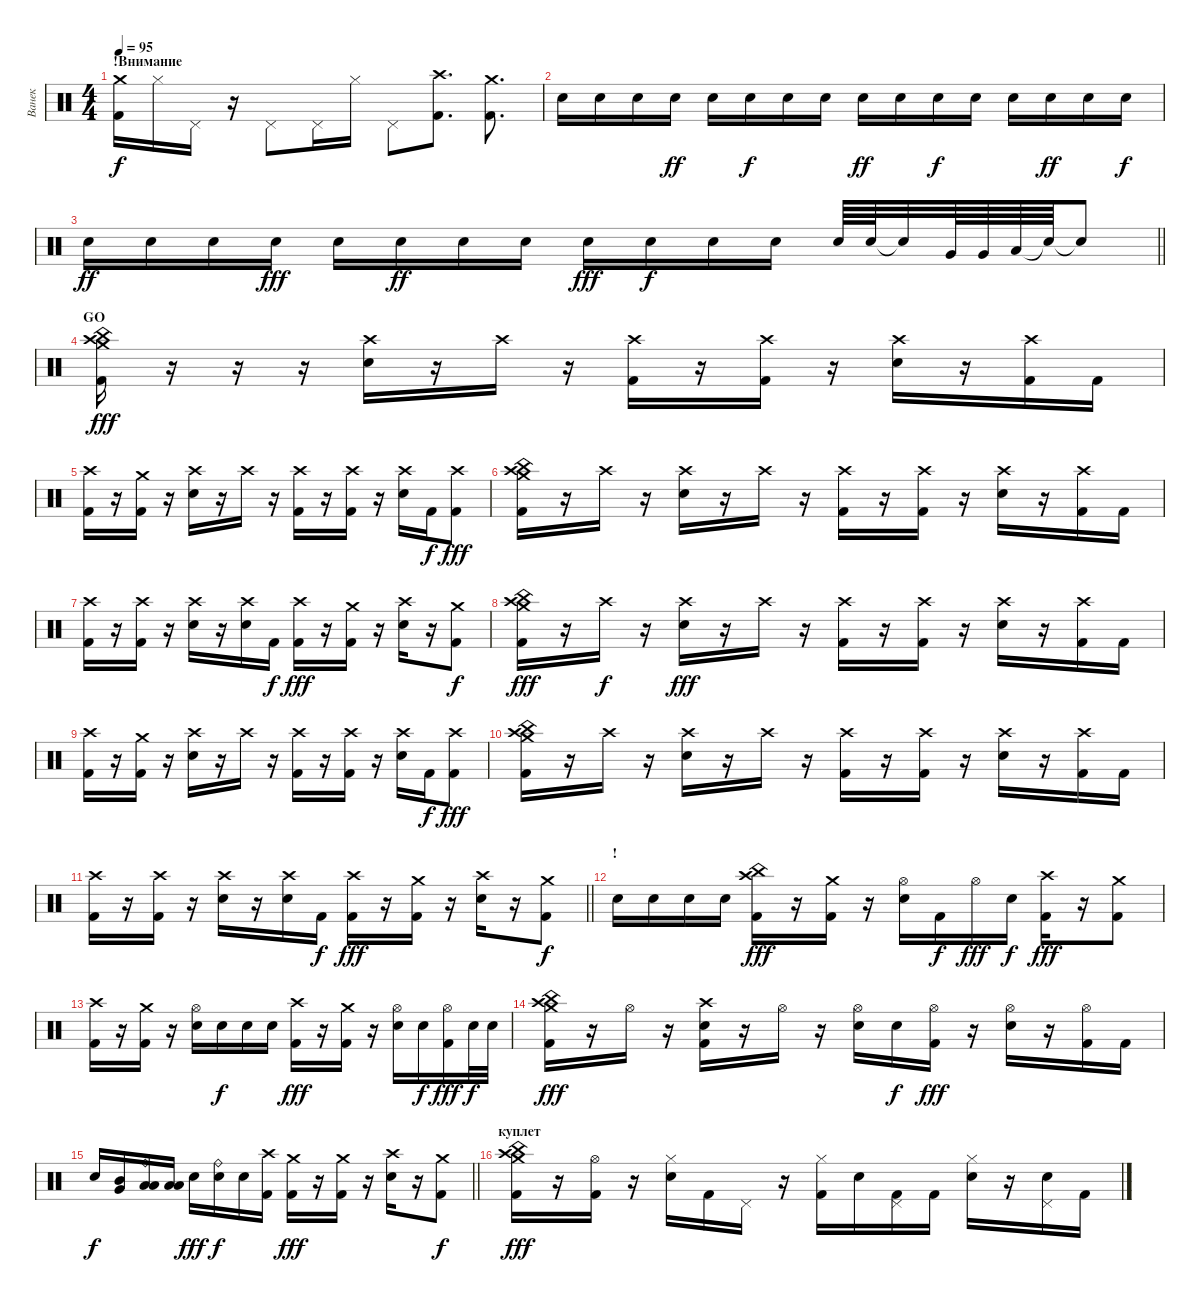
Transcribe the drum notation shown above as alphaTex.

\track ("Ванек" "Ванек") {instrument percussion}
\staff {score}
\articulation defaults
\ts (4 4)
\section ("" "!Внимание")
\tempo 95
\clef neutral
\ks c
("Crash medium (hit)" "Kick (hit) 2").16{dy f} "Hi-Hat (closed)".16 "Pedal Hi-Hat (hit)".16 r.16 "Pedal Hi-Hat (hit)".8 "Pedal Hi-Hat (hit)".16 "Hi-Hat (closed)".16 "Pedal Hi-Hat (hit)".8 ("Crash high (hit)" "Kick (hit) 2").8{d} ("Crash medium (hit)" "Kick (hit) 2").8{d} |
"Snare (hit) 2".16 "Snare (hit) 2".16 "Snare (hit) 2".16 "Snare (hit) 2".16{dy ff} "Snare (hit) 2".16 "Snare (hit) 2".16{dy f} "Snare (hit) 2".16 "Snare (hit) 2".16 "Snare (hit) 2".16{dy ff} "Snare (hit) 2".16 "Snare (hit) 2".16{dy f} "Snare (hit) 2".16 "Snare (hit) 2".16 "Snare (hit) 2".16{dy ff} "Snare (hit) 2".16 "Snare (hit) 2".16{dy f} |
\barLineRight lightlight "Snare (hit) 2".16{dy ff} "Snare (hit) 2".16 "Snare (hit) 2".16 "Snare (hit) 2".16{dy fff} "Snare (hit) 2".16 "Snare (hit) 2".16{dy ff} "Snare (hit) 2".16 "Snare (hit) 2".16 "Snare (hit) 2".16{dy fff} "Snare (hit) 2".16{dy f} "Snare (hit) 2".16 "Snare (hit) 2".16 "Snare (hit) 2".64 "Snare (hit) 2".64 "Snare (hit)"{t}.32 "Very Low Tom (hit)".64 "Very Low Tom (hit)".64 "Low Floor Tom (hit)".64 "Snare (hit)"{t}.64 "Snare (hit)"{t}.8
|
\section ("" "GO")
("Crash high (hit)" "Crash medium (hit)" "China (hit)" "Kick (hit) 2").16{dy fff} r.16 r.16 r.16 ("Crash high (hit)" "Snare (hit) 2").16 r.16 "Crash high (hit)".16 r.16 ("Crash high (hit)" "Kick (hit) 2").16 r.16 ("Crash high (hit)" "Kick (hit) 2").16 r.16 ("Crash high (hit)" "Snare (hit) 2").16 r.16 ("Crash high (hit)" "Kick (hit) 2").16 "Kick (hit) 2".16 |
("Crash high (hit)" "Kick (hit) 2").16 r.16 ("Crash medium (hit)" "Kick (hit) 2").16 r.16 ("Crash high (hit)" "Snare (hit) 2").16 r.16 "Crash high (hit)".16 r.16 ("Crash high (hit)" "Kick (hit) 2").16 r.16 ("Crash high (hit)" "Kick (hit) 2").16 r.16 ("Crash high (hit)" "Snare (hit) 2").16 "Kick (hit) 2".16{dy f} ("Crash high (hit)" "Kick (hit) 2").8{dy fff} |
("Crash high (hit)" "Crash medium (hit)" "China (hit)" "Kick (hit) 2").16 r.16 "Crash high (hit)".16 r.16 ("Crash high (hit)" "Snare (hit) 2").16 r.16 "Crash high (hit)".16 r.16 ("Crash high (hit)" "Kick (hit) 2").16 r.16 ("Crash high (hit)" "Kick (hit) 2").16 r.16 ("Crash high (hit)" "Snare (hit) 2").16 r.16 ("Crash high (hit)" "Kick (hit) 2").16 "Kick (hit) 2".16 |
("Crash high (hit)" "Kick (hit) 2").16 r.16 ("Crash high (hit)" "Kick (hit) 2").16 r.16 ("Crash high (hit)" "Snare (hit) 2").16 r.16 ("Crash high (hit)" "Snare (hit) 2").16 "Kick (hit) 2".16{dy f} ("Crash high (hit)" "Kick (hit) 2").16{dy fff} r.16 ("Crash medium (hit)" "Kick (hit) 2").16 r.16 ("Crash high (hit)" "Snare (hit) 2").16 r.16 ("Crash medium (hit)" "Kick (hit) 2").8{dy f} |
("Crash high (hit)" "Crash medium (hit)" "China (hit)" "Kick (hit) 2").16{dy fff} r.16 "Crash high (hit)".16{dy f} r.16 ("Crash high (hit)" "Snare (hit) 2").16{dy fff} r.16 "Crash high (hit)".16 r.16 ("Crash high (hit)" "Kick (hit) 2").16 r.16 ("Crash high (hit)" "Kick (hit) 2").16 r.16 ("Crash high (hit)" "Snare (hit) 2").16 r.16 ("Crash high (hit)" "Kick (hit) 2").16 "Kick (hit) 2".16 |
("Crash high (hit)" "Kick (hit) 2").16 r.16 ("Crash medium (hit)" "Kick (hit) 2").16 r.16 ("Crash high (hit)" "Snare (hit) 2").16 r.16 "Crash high (hit)".16 r.16 ("Crash high (hit)" "Kick (hit) 2").16 r.16 ("Crash high (hit)" "Kick (hit) 2").16 r.16 ("Crash high (hit)" "Snare (hit) 2").16 "Kick (hit) 2".16{dy f} ("Crash high (hit)" "Kick (hit) 2").8{dy fff} |
("Crash high (hit)" "Crash medium (hit)" "China (hit)" "Kick (hit) 2").16 r.16 "Crash high (hit)".16 r.16 ("Crash high (hit)" "Snare (hit) 2").16 r.16 "Crash high (hit)".16 r.16 ("Crash high (hit)" "Kick (hit) 2").16 r.16 ("Crash high (hit)" "Kick (hit) 2").16 r.16 ("Crash high (hit)" "Snare (hit) 2").16 r.16 ("Crash high (hit)" "Kick (hit) 2").16 "Kick (hit) 2".16 |
\barLineRight lightlight
("Crash high (hit)" "Kick (hit) 2").16 r.16 ("Crash high (hit)" "Kick (hit) 2").16 r.16 ("Crash high (hit)" "Snare (hit) 2").16 r.16 ("Crash high (hit)" "Snare (hit) 2").16 "Kick (hit) 2".16{dy f} ("Crash high (hit)" "Kick (hit) 2").16{dy fff} r.16 ("Crash medium (hit)" "Kick (hit) 2").16 r.16 ("Crash high (hit)" "Snare (hit) 2").16 r.16 ("Crash medium (hit)" "Kick (hit) 2").8{dy f} |
\section ("" "!")
"Snare (hit) 2".16 "Snare (hit) 2".16 "Snare (hit) 2".16 "Snare (hit) 2".16 ("Crash high (hit)" "China (hit)" "Kick (hit) 2").16{dy fff} r.16 ("Crash medium (hit)" "Kick (hit) 2").16 r.16 ("Hi-Hat (open)" "Snare (hit) 2").16 "Kick (hit) 2".16{dy f} "Hi-Hat (open)".16{dy fff} "Snare (hit) 2".16{dy f} ("Crash high (hit)" "Kick (hit) 2").16{dy fff} r.16 ("Crash medium (hit)" "Kick (hit) 2").8 |
("Crash high (hit)" "Kick (hit) 2").16 r.16 ("Crash medium (hit)" "Kick (hit) 2").16 r.16 ("Hi-Hat (open)" "Snare (hit) 2").16 "Snare (hit) 2".16{dy f} "Snare (hit) 2".16 "Snare (hit) 2".16 ("Crash high (hit)" "Kick (hit) 2").16{dy fff} r.16 ("Crash medium (hit)" "Kick (hit) 2").16 r.16 ("Hi-Hat (open)" "Snare (hit) 2").16 "Snare (hit) 2".16{dy f} ("Hi-Hat (open)" "Kick (hit) 2").16{dy fff} "Snare (hit) 2".32{dy f} "Snare (hit) 2".32 |
("Crash high (hit)" "Crash medium (hit)" "China (hit)" "Kick (hit) 2").16{dy fff} r.16 "Hi-Hat (open)".16 r.16 ("Crash high (hit)" "Snare (hit) 2" "Kick (hit) 2").16 r.16 "Hi-Hat (open)".16 r.16 ("Hi-Hat (open)" "Snare (hit) 2").16 "Snare (hit) 2".16{dy f} ("Hi-Hat (open)" "Kick (hit) 2").16{dy fff} r.16 ("Hi-Hat (open)" "Snare (hit) 2").16 r.16 ("Hi-Hat (open)" "Kick (hit) 2").16 "Kick (hit) 2".16 |
\barLineRight lightlight "Snare (hit) 2".16{dy f}
("Mid Tom (hit)" "Very Low Tom (hit)").16 ("Ride (bell)" "Low Floor Tom (hit)" "Low Tom (hit)").16 ("Low Floor Tom (hit)" "Low Tom (hit)").16 "Snare (hit) 2".16{dy fff} ("Ride (bell)" "Snare (hit) 2").16{dy f} "Snare (hit) 2".16 ("Crash high (hit)" "Kick (hit) 2").16 ("Crash medium (hit)" "Kick (hit) 2").16{dy fff} r.16 ("Crash medium (hit)" "Kick (hit) 2").16 r.16 ("Crash high (hit)" "Snare (hit) 2").16 r.16 ("Crash medium (hit)" "Kick (hit) 2").8{dy f} |
\section ("" "куплет")
("Crash high (hit)" "Crash medium (hit)" "China (hit)" "Kick (hit) 2").16{dy fff} r.16 ("Hi-Hat (open)" "Kick (hit) 2").16 r.16 ("Hi-Hat (closed)" "Snare (hit) 2").16 "Kick (hit) 2".16 "Pedal Hi-Hat (hit)".16 r.16 ("Hi-Hat (closed)" "Kick (hit) 2").16 "Snare (hit) 2".16 ("Pedal Hi-Hat (hit)" "Kick (hit) 2").16 "Kick (hit) 2".16 ("Hi-Hat (closed)" "Snare (hit) 2").16 r.16 ("Pedal Hi-Hat (hit)" "Snare (hit) 2").16 "Kick (hit) 2".16
